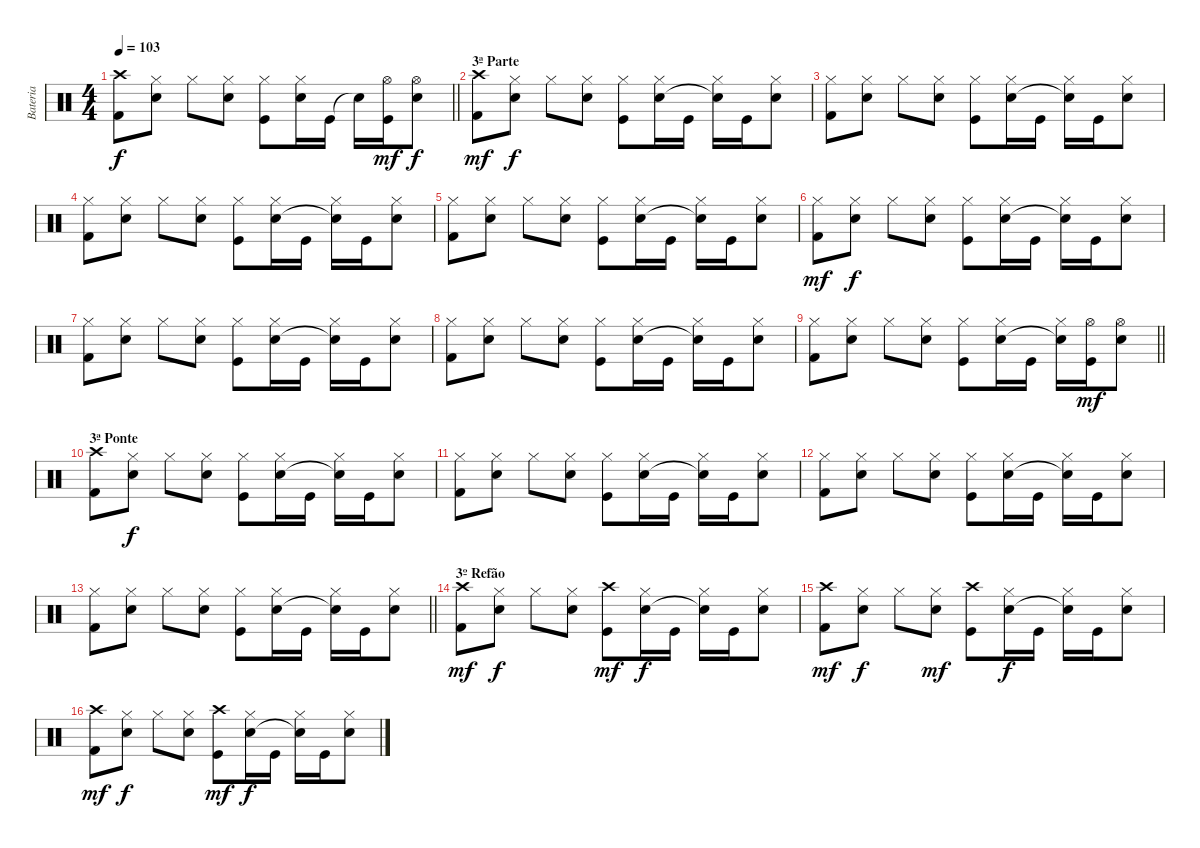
\track ("Bateria" "Bateria") {instrument percussion}
\staff {score}
\articulation defaults
\ts (4 4)
\tempo 103
\clef neutral
\barLineRight lightlight
\ks c
("Crash high (hit)" "Kick (hit) 2").8{dy f} ("Hi-Hat (closed)" "Snare (hit) 2").8 "Hi-Hat (closed)".8 ("Hi-Hat (closed)" "Snare (hit) 2").8 ("Hi-Hat (closed)" "Kick (hit)").8 ("Hi-Hat (closed)" "Snare (hit) 2").16 "Kick (hit)".16 "Snare (hit)"{t}.16 ("Hi-Hat (open)" "Kick (hit)").16{dy mf} ("Hi-Hat (open)" "Snare (hit) 2").8{dy f} |
\section ("" "3ª Parte")
("Crash high (hit)" "Kick (hit) 2").8{dy mf} ("Hi-Hat (closed)" "Snare (hit) 2").8{dy f} "Hi-Hat (closed)".8 ("Hi-Hat (closed)" "Snare (hit) 2").8 ("Hi-Hat (closed)" "Kick (hit)").8 ("Hi-Hat (closed)" "Snare (hit) 2").16 "Kick (hit)".16 ("Hi-Hat (closed)" "Snare (hit)"{t}).16 "Kick (hit)".16 ("Hi-Hat (closed)" "Snare (hit) 2").8 |
("Hi-Hat (closed)" "Kick (hit) 2").8 ("Hi-Hat (closed)" "Snare (hit) 2").8 "Hi-Hat (closed)".8 ("Hi-Hat (closed)" "Snare (hit) 2").8 ("Hi-Hat (closed)" "Kick (hit)").8 ("Hi-Hat (closed)" "Snare (hit) 2").16 "Kick (hit)".16 ("Hi-Hat (closed)" "Snare (hit)"{t}).16 "Kick (hit)".16 ("Hi-Hat (closed)" "Snare (hit) 2").8 |
("Hi-Hat (closed)" "Kick (hit) 2").8 ("Hi-Hat (closed)" "Snare (hit) 2").8 "Hi-Hat (closed)".8 ("Hi-Hat (closed)" "Snare (hit) 2").8 ("Hi-Hat (closed)" "Kick (hit)").8 ("Hi-Hat (closed)" "Snare (hit) 2").16 "Kick (hit)".16 ("Hi-Hat (closed)" "Snare (hit)"{t}).16 "Kick (hit)".16 ("Hi-Hat (closed)" "Snare (hit) 2").8 |
("Hi-Hat (closed)" "Kick (hit) 2").8 ("Hi-Hat (closed)" "Snare (hit) 2").8 "Hi-Hat (closed)".8 ("Hi-Hat (closed)" "Snare (hit) 2").8 ("Hi-Hat (closed)" "Kick (hit)").8 ("Hi-Hat (closed)" "Snare (hit) 2").16 "Kick (hit)".16 ("Hi-Hat (closed)" "Snare (hit)"{t}).16 "Kick (hit)".16 ("Hi-Hat (closed)" "Snare (hit) 2").8 |
("Hi-Hat (closed)" "Kick (hit) 2").8{dy mf} ("Hi-Hat (closed)" "Snare (hit) 2").8{dy f} "Hi-Hat (closed)".8 ("Hi-Hat (closed)" "Snare (hit) 2").8 ("Hi-Hat (closed)" "Kick (hit)").8 ("Hi-Hat (closed)" "Snare (hit) 2").16 "Kick (hit)".16 ("Hi-Hat (closed)" "Snare (hit)"{t}).16 "Kick (hit)".16 ("Hi-Hat (closed)" "Snare (hit) 2").8 |
("Hi-Hat (closed)" "Kick (hit) 2").8 ("Hi-Hat (closed)" "Snare (hit) 2").8 "Hi-Hat (closed)".8 ("Hi-Hat (closed)" "Snare (hit) 2").8 ("Hi-Hat (closed)" "Kick (hit)").8 ("Hi-Hat (closed)" "Snare (hit) 2").16 "Kick (hit)".16 ("Hi-Hat (closed)" "Snare (hit)"{t}).16 "Kick (hit)".16 ("Hi-Hat (closed)" "Snare (hit) 2").8 |
("Hi-Hat (closed)" "Kick (hit) 2").8 ("Hi-Hat (closed)" "Snare (hit) 2").8 "Hi-Hat (closed)".8 ("Hi-Hat (closed)" "Snare (hit) 2").8 ("Hi-Hat (closed)" "Kick (hit)").8 ("Hi-Hat (closed)" "Snare (hit) 2").16 "Kick (hit)".16 ("Hi-Hat (closed)" "Snare (hit)"{t}).16 "Kick (hit)".16 ("Hi-Hat (closed)" "Snare (hit) 2").8 |
\barLineRight lightlight
("Hi-Hat (closed)" "Kick (hit) 2").8 ("Hi-Hat (closed)" "Snare (hit) 2").8 "Hi-Hat (closed)".8 ("Hi-Hat (closed)" "Snare (hit) 2").8 ("Hi-Hat (closed)" "Kick (hit)").8 ("Hi-Hat (closed)" "Snare (hit) 2").16 "Kick (hit)".16 ("Hi-Hat (closed)" "Snare (hit)"{t}).16 ("Hi-Hat (open)" "Kick (hit)").16{dy mf} ("Hi-Hat (open)" "Snare (hit) 2").8 |
\section ("" "3ª Ponte")
("Crash high (hit)" "Kick (hit) 2").8 ("Hi-Hat (closed)" "Snare (hit) 2").8{dy f} "Hi-Hat (closed)".8 ("Hi-Hat (closed)" "Snare (hit) 2").8 ("Hi-Hat (closed)" "Kick (hit)").8 ("Hi-Hat (closed)" "Snare (hit) 2").16 "Kick (hit)".16 ("Hi-Hat (closed)" "Snare (hit)"{t}).16 "Kick (hit)".16 ("Hi-Hat (closed)" "Snare (hit) 2").8 |
("Hi-Hat (closed)" "Kick (hit) 2").8 ("Hi-Hat (closed)" "Snare (hit) 2").8 "Hi-Hat (closed)".8 ("Hi-Hat (closed)" "Snare (hit) 2").8 ("Hi-Hat (closed)" "Kick (hit)").8 ("Hi-Hat (closed)" "Snare (hit) 2").16 "Kick (hit)".16 ("Hi-Hat (closed)" "Snare (hit)"{t}).16 "Kick (hit)".16 ("Hi-Hat (closed)" "Snare (hit) 2").8 |
("Hi-Hat (closed)" "Kick (hit) 2").8 ("Hi-Hat (closed)" "Snare (hit) 2").8 "Hi-Hat (closed)".8 ("Hi-Hat (closed)" "Snare (hit) 2").8 ("Hi-Hat (closed)" "Kick (hit)").8 ("Hi-Hat (closed)" "Snare (hit) 2").16 "Kick (hit)".16 ("Hi-Hat (closed)" "Snare (hit)"{t}).16 "Kick (hit)".16 ("Hi-Hat (closed)" "Snare (hit) 2").8 |
\barLineRight lightlight
("Hi-Hat (closed)" "Kick (hit) 2").8 ("Hi-Hat (closed)" "Snare (hit) 2").8 "Hi-Hat (closed)".8 ("Hi-Hat (closed)" "Snare (hit) 2").8 ("Hi-Hat (closed)" "Kick (hit)").8 ("Hi-Hat (closed)" "Snare (hit) 2").16 "Kick (hit)".16 ("Hi-Hat (closed)" "Snare (hit)"{t}).16 "Kick (hit)".16 ("Hi-Hat (closed)" "Snare (hit) 2").8 |
\section ("" "3º Refão")
("Crash high (hit)" "Kick (hit) 2").8{dy mf} ("Hi-Hat (closed)" "Snare (hit) 2").8{dy f} "Hi-Hat (closed)".8 ("Hi-Hat (closed)" "Snare (hit) 2").8 ("Crash high (hit)" "Kick (hit)").8{dy mf} ("Hi-Hat (closed)" "Snare (hit) 2").16{dy f} "Kick (hit)".16 ("Hi-Hat (closed)" "Snare (hit)"{t}).16 "Kick (hit)".16 ("Hi-Hat (closed)" "Snare (hit) 2").8 |
("Crash high (hit)" "Kick (hit) 2").8{dy mf} ("Hi-Hat (closed)" "Snare (hit) 2").8{dy f} "Hi-Hat (closed)".8 ("Hi-Hat (closed)" "Snare (hit) 2").8{dy mf} ("Crash high (hit)" "Kick (hit)").8 ("Hi-Hat (closed)" "Snare (hit) 2").16{dy f} "Kick (hit)".16 ("Hi-Hat (closed)" "Snare (hit)"{t}).16 "Kick (hit)".16 ("Hi-Hat (closed)" "Snare (hit) 2").8 |
("Crash high (hit)" "Kick (hit) 2").8{dy mf} ("Hi-Hat (closed)" "Snare (hit) 2").8{dy f} "Hi-Hat (closed)".8 ("Hi-Hat (closed)" "Snare (hit) 2").8 ("Crash high (hit)" "Kick (hit)").8{dy mf} ("Hi-Hat (closed)" "Snare (hit) 2").16{dy f} "Kick (hit)".16 ("Hi-Hat (closed)" "Snare (hit)"{t}).16 "Kick (hit)".16 ("Hi-Hat (closed)" "Snare (hit) 2").8
